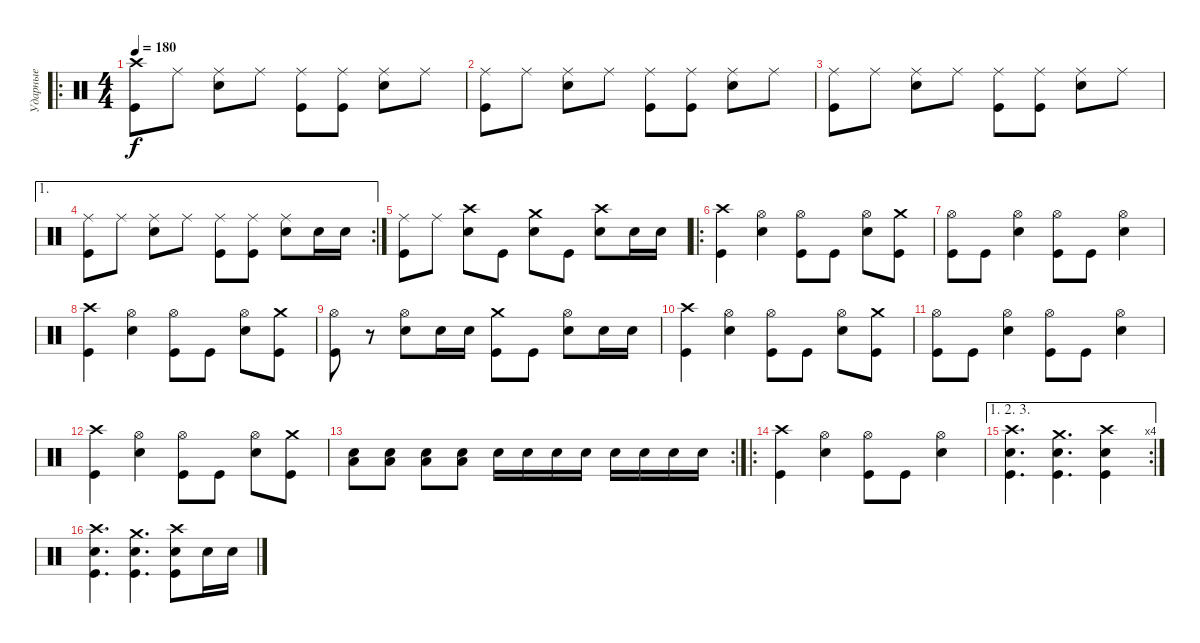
\track ("Ударные" "Ударные") {instrument percussion}
\staff {score}
\articulation defaults
\ro
\ts (4 4)
\tempo 180
\clef neutral
\ks c
("Crash high (hit)" "Kick (hit)").8{dy f} "Ride (middle)".8 ("Ride (middle)" "Electric Snare (hit)").8 "Ride (middle)".8 ("Ride (middle)" "Kick (hit)").8 ("Ride (middle)" "Kick (hit)").8 ("Ride (middle)" "Electric Snare (hit)").8 "Ride (middle)".8 |
("Ride (middle)" "Kick (hit)").8 "Ride (middle)".8 ("Ride (middle)" "Electric Snare (hit)").8 "Ride (middle)".8 ("Ride (middle)" "Kick (hit)").8 ("Ride (middle)" "Kick (hit)").8 ("Ride (middle)" "Electric Snare (hit)").8 "Ride (middle)".8 |
("Ride (middle)" "Kick (hit)").8 "Ride (middle)".8 ("Ride (middle)" "Electric Snare (hit)").8 "Ride (middle)".8 ("Ride (middle)" "Kick (hit)").8 ("Ride (middle)" "Kick (hit)").8 ("Ride (middle)" "Electric Snare (hit)").8 "Ride (middle)".8 |
\ae 1
\rc 2
("Ride (middle)" "Kick (hit)").8 "Ride (middle)".8 ("Ride (middle)" "Electric Snare (hit)").8 "Ride (middle)".8 ("Ride (middle)" "Kick (hit)").8 ("Ride (middle)" "Kick (hit)").8 ("Ride (middle)" "Electric Snare (hit)").8 "Electric Snare (hit)".16 "Electric Snare (hit)".16 |
("Ride (middle)" "Kick (hit)").8 "Ride (middle)".8 ("Crash high (hit)" "Electric Snare (hit)").8 "Kick (hit)".8 ("Crash medium (hit)" "Electric Snare (hit)").8 "Kick (hit)".8 ("Crash high (hit)" "Electric Snare (hit)").8 "Electric Snare (hit)".16 "Electric Snare (hit)".16 |
\ro
("Crash high (hit)" "Kick (hit)").4 ("Hi-Hat (open)" "Electric Snare (hit)").4 ("Hi-Hat (open)" "Kick (hit)").8 "Kick (hit)".8 ("Hi-Hat (open)" "Electric Snare (hit)").8 ("Crash medium (hit)" "Kick (hit)").8 |
("Hi-Hat (open)" "Kick (hit)").8 "Kick (hit)".8 ("Hi-Hat (open)" "Electric Snare (hit)").4 ("Hi-Hat (open)" "Kick (hit)").8 "Kick (hit)".8 ("Hi-Hat (open)" "Electric Snare (hit)").4 |
("Crash high (hit)" "Kick (hit)").4 ("Hi-Hat (open)" "Electric Snare (hit)").4 ("Hi-Hat (open)" "Kick (hit)").8 "Kick (hit)".8 ("Hi-Hat (open)" "Electric Snare (hit)").8 ("Crash medium (hit)" "Kick (hit)").8 |
("Hi-Hat (open)" "Kick (hit)").8 r.8 ("Hi-Hat (open)" "Electric Snare (hit)").8 "Electric Snare (hit)".16 "Electric Snare (hit)".16 ("Crash medium (hit)" "Kick (hit)").8 "Kick (hit)".8 ("Hi-Hat (open)" "Electric Snare (hit)").8 "Electric Snare (hit)".16 "Electric Snare (hit)".16 |
("Crash high (hit)" "Kick (hit)").4 ("Hi-Hat (open)" "Electric Snare (hit)").4 ("Hi-Hat (open)" "Kick (hit)").8 "Kick (hit)".8 ("Hi-Hat (open)" "Electric Snare (hit)").8 ("Crash medium (hit)" "Kick (hit)").8 |
("Hi-Hat (open)" "Kick (hit)").8 "Kick (hit)".8 ("Hi-Hat (open)" "Electric Snare (hit)").4 ("Hi-Hat (open)" "Kick (hit)").8 "Kick (hit)".8 ("Hi-Hat (open)" "Electric Snare (hit)").4 |
("Crash high (hit)" "Kick (hit)").4 ("Hi-Hat (open)" "Electric Snare (hit)").4 ("Hi-Hat (open)" "Kick (hit)").8 "Kick (hit)".8 ("Hi-Hat (open)" "Electric Snare (hit)").8 ("Crash medium (hit)" "Kick (hit)").8 |
\rc 2
("Low Floor Tom (hit)" "Electric Snare (hit)").8 ("Low Floor Tom (hit)" "Electric Snare (hit)").8 ("Low Floor Tom (hit)" "Electric Snare (hit)").8 ("Low Floor Tom (hit)" "Electric Snare (hit)").8 "Electric Snare (hit)".16 "Electric Snare (hit)".16 "Electric Snare (hit)".16 "Electric Snare (hit)".16 "Electric Snare (hit)".16 "Electric Snare (hit)".16 "Electric Snare (hit)".16 "Electric Snare (hit)".16 |
\ro
("Crash high (hit)" "Kick (hit)").4 ("Hi-Hat (open)" "Electric Snare (hit)").4 ("Hi-Hat (open)" "Kick (hit)").8 "Kick (hit)".8 ("Hi-Hat (open)" "Electric Snare (hit)").4 |
\ae (1 2 3)
\rc 4
("Crash high (hit)" "Electric Snare (hit)" "Kick (hit)").4{d} ("Crash medium (hit)" "Electric Snare (hit)" "Kick (hit)").4{d} ("Crash high (hit)" "Electric Snare (hit)" "Kick (hit)").4 |
("Crash high (hit)" "Electric Snare (hit)" "Kick (hit)").4{d} ("Crash medium (hit)" "Electric Snare (hit)" "Kick (hit)").4{d} ("Crash high (hit)" "Electric Snare (hit)" "Kick (hit)").8 "Electric Snare (hit)".16 "Electric Snare (hit)".16
